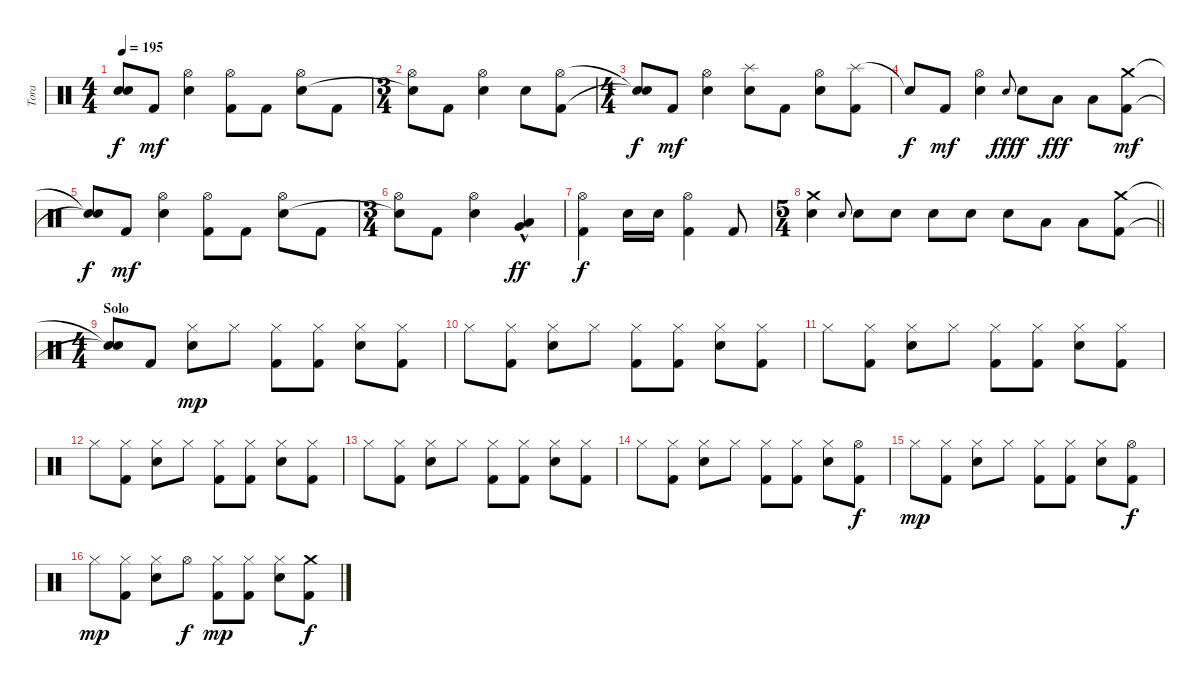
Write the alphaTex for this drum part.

\track ("Tora" "Tora") {instrument percussion}
\staff {score}
\articulation defaults
\ts (4 4)
\tempo 195
\clef neutral
\ks c
("Snare (hit)"{t} "Snare (hit)"{t}).8{dy f} "Kick (hit) 2".8{dy mf} ("Hi-Hat (open)" "Electric Snare (hit)").4 ("Hi-Hat (open)" "Kick (hit) 2").8 "Kick (hit) 2".8 ("Hi-Hat (open)" "Electric Snare (hit)").8 "Kick (hit) 2".8 |
\ts (3 4)
("Hi-Hat (open)" "Snare (hit)"{t}).8 "Kick (hit) 2".8 ("Hi-Hat (open)" "Electric Snare (hit)").4 "Electric Snare (hit)".8 ("Hi-Hat (open)" "Kick (hit) 2").8 |
\ts (4 4)
("Snare (hit)"{t} "Snare (hit)"{t}).8{dy f} "Kick (hit) 2".8{dy mf} ("Hi-Hat (open)" "Electric Snare (hit)").4 ("Splash (hit)" "Electric Snare (hit)").8 "Kick (hit) 2".8 ("Hi-Hat (open)" "Electric Snare (hit)").8 ("Splash (hit)" "Kick (hit) 2").8 |
"Snare (hit)"{t}.8{dy f} "Kick (hit) 2".8{dy mf} ("Hi-Hat (open)" "Electric Snare (hit)").4 "Electric Snare (hit)".8{gr onbeat dy fff} "Electric Snare (hit)".8{dy f} "Low Tom (hit)".8{dy fff} "Low Tom (hit)".8 ("Crash medium (hit)" "Kick (hit) 2").8{dy mf} |
("Snare (hit)"{t} "Snare (hit)"{t}).8{dy f} "Kick (hit) 2".8{dy mf} ("Hi-Hat (open)" "Electric Snare (hit)").4 ("Hi-Hat (open)" "Kick (hit) 2").8 "Kick (hit) 2".8 ("Hi-Hat (open)" "Electric Snare (hit)").8 "Kick (hit) 2".8 |
\ts (3 4)
("Hi-Hat (open)" "Snare (hit)"{t}).8 "Kick (hit) 2".8 ("Hi-Hat (open)" "Electric Snare (hit)").4 ("Very Low Tom (hit)"{hac} "Low Floor Tom (hit)"{hac}).4{dy ff} |
("Hi-Hat (open)" "Kick (hit) 2").4{dy f} "Electric Snare (hit)".16 "Electric Snare (hit)".16 ("Hi-Hat (open)" "Kick (hit) 2").4 "Kick (hit) 2".8 |
\ts (5 4)
\barLineRight lightlight
("Crash medium (hit)" "Electric Snare (hit)").4 "Electric Snare (hit)".8{gr onbeat} "Electric Snare (hit)".8 "Electric Snare (hit)".8 "Electric Snare (hit)".8 "Electric Snare (hit)".8 "Electric Snare (hit)".8 "Low Tom (hit)".8 "Low Tom (hit)".8 ("Crash medium (hit)" "Kick (hit) 2").8 |
\ts (4 4)
\section ("" "Solo")
("Snare (hit)"{t} "Snare (hit)"{t}).8 "Kick (hit) 2".8 ("Hi-Hat (closed)" "Electric Snare (hit)").8{dy mp} "Hi-Hat (closed)".8 ("Hi-Hat (closed)" "Kick (hit) 2").8 ("Hi-Hat (closed)" "Kick (hit) 2").8 ("Hi-Hat (closed)" "Electric Snare (hit)").8 ("Hi-Hat (closed)" "Kick (hit) 2").8 |
"Hi-Hat (closed)".8 ("Hi-Hat (closed)" "Kick (hit) 2").8 ("Hi-Hat (closed)" "Electric Snare (hit)").8 "Hi-Hat (closed)".8 ("Hi-Hat (closed)" "Kick (hit) 2").8 ("Hi-Hat (closed)" "Kick (hit) 2").8 ("Hi-Hat (closed)" "Electric Snare (hit)").8 ("Hi-Hat (closed)" "Kick (hit) 2").8 |
"Hi-Hat (closed)".8 ("Hi-Hat (closed)" "Kick (hit) 2").8 ("Hi-Hat (closed)" "Electric Snare (hit)").8 "Hi-Hat (closed)".8 ("Hi-Hat (closed)" "Kick (hit) 2").8 ("Hi-Hat (closed)" "Kick (hit) 2").8 ("Hi-Hat (closed)" "Electric Snare (hit)").8 ("Hi-Hat (closed)" "Kick (hit) 2").8 |
"Hi-Hat (closed)".8 ("Hi-Hat (closed)" "Kick (hit) 2").8 ("Hi-Hat (closed)" "Electric Snare (hit)").8 "Hi-Hat (closed)".8 ("Hi-Hat (closed)" "Kick (hit) 2").8 ("Hi-Hat (closed)" "Kick (hit) 2").8 ("Hi-Hat (closed)" "Electric Snare (hit)").8 ("Hi-Hat (closed)" "Kick (hit) 2").8 |
"Hi-Hat (closed)".8 ("Hi-Hat (closed)" "Kick (hit) 2").8 ("Hi-Hat (closed)" "Electric Snare (hit)").8 "Hi-Hat (closed)".8 ("Hi-Hat (closed)" "Kick (hit) 2").8 ("Hi-Hat (closed)" "Kick (hit) 2").8 ("Hi-Hat (closed)" "Electric Snare (hit)").8 ("Hi-Hat (closed)" "Kick (hit) 2").8 |
"Hi-Hat (closed)".8 ("Hi-Hat (closed)" "Kick (hit) 2").8 ("Hi-Hat (closed)" "Electric Snare (hit)").8 "Hi-Hat (closed)".8 ("Hi-Hat (closed)" "Kick (hit) 2").8 ("Hi-Hat (closed)" "Kick (hit) 2").8 ("Hi-Hat (closed)" "Electric Snare (hit)").8 ("Hi-Hat (open)" "Kick (hit) 2").8{dy f} |
"Hi-Hat (closed)".8{dy mp} ("Hi-Hat (closed)" "Kick (hit) 2").8 ("Hi-Hat (closed)" "Electric Snare (hit)").8 "Hi-Hat (closed)".8 ("Hi-Hat (closed)" "Kick (hit) 2").8 ("Hi-Hat (closed)" "Kick (hit) 2").8 ("Hi-Hat (closed)" "Electric Snare (hit)").8 ("Hi-Hat (open)" "Kick (hit) 2").8{dy f} |
"Hi-Hat (closed)".8{dy mp} ("Hi-Hat (closed)" "Kick (hit) 2").8 ("Hi-Hat (closed)" "Electric Snare (hit)").8 "Hi-Hat (open)".8{dy f} ("Hi-Hat (closed)" "Kick (hit) 2").8{dy mp} ("Hi-Hat (closed)" "Kick (hit) 2").8 ("Hi-Hat (closed)" "Electric Snare (hit)").8 ("Crash medium (hit)" "Kick (hit) 2").8{dy f}
